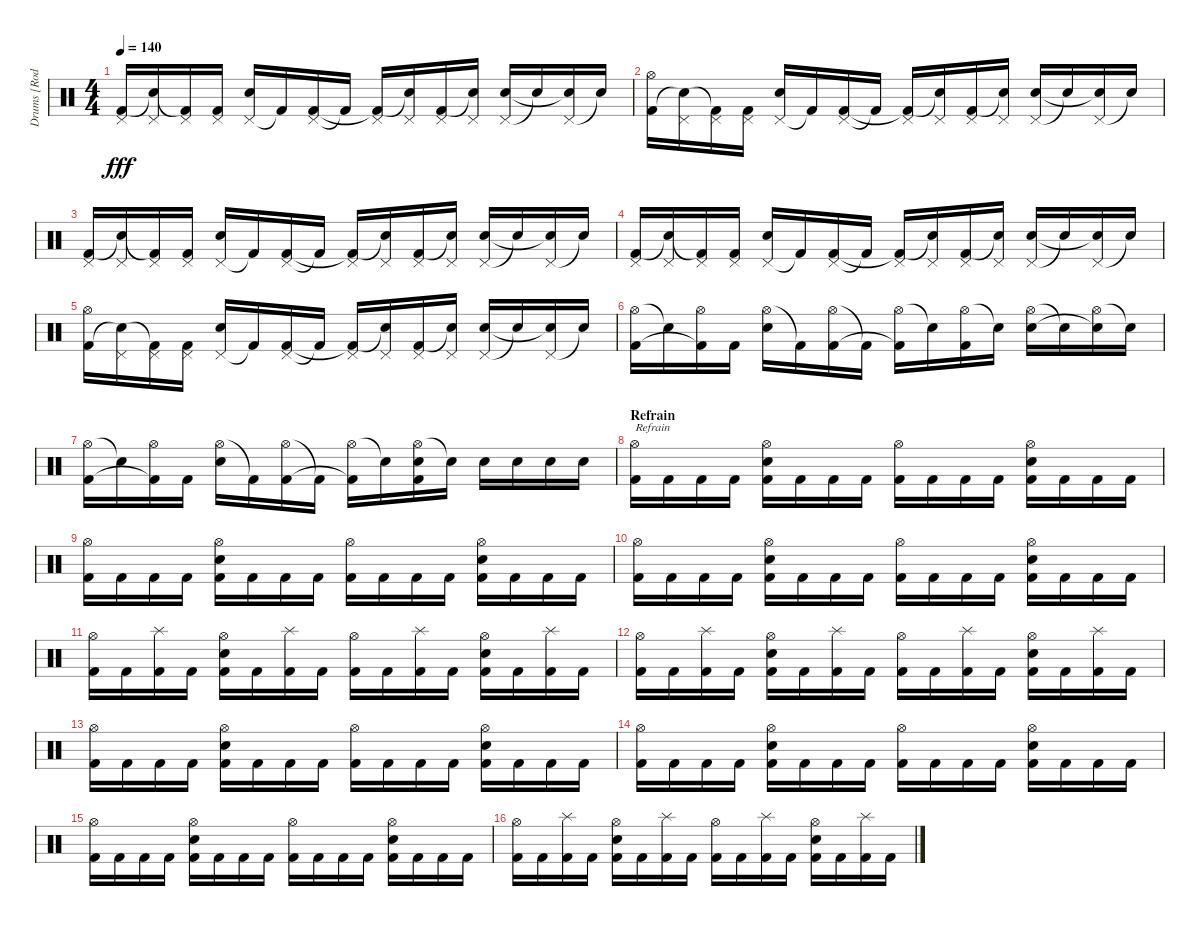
\track ("Drums [Rodney Holder]" "Drums [Rod") {instrument percussion}
\staff {score}
\articulation defaults
\ts (4 4)
\tempo 140
\clef neutral
\ks c
("Pedal Hi-Hat (hit)" "Kick (hit) 2").16{dy fff} ("Pedal Hi-Hat (hit)" "Snare (hit)"{t}).16 ("Pedal Hi-Hat (hit)" "Kick (hit) 2"{t}).16 ("Pedal Hi-Hat (hit)" "Kick (hit) 2").16 ("Pedal Hi-Hat (hit)" "Electric Snare (hit)").16 "Kick (hit) 2"{t}.16 ("Pedal Hi-Hat (hit)" "Kick (hit) 2").16 "Kick (hit) 2"{t}.16 ("Pedal Hi-Hat (hit)" "Kick (hit) 2"{t}).16 ("Pedal Hi-Hat (hit)" "Snare (hit)"{t}).16 ("Pedal Hi-Hat (hit)" "Kick (hit) 2").16 ("Pedal Hi-Hat (hit)" "Snare (hit)"{t}).16 ("Pedal Hi-Hat (hit)" "Electric Snare (hit)").16 "Snare (hit)"{t}.16 ("Pedal Hi-Hat (hit)" "Snare (hit)"{t}).16 "Snare (hit)"{t}.16 |
("Hi-Hat (open)" "Kick (hit) 2").16 ("Pedal Hi-Hat (hit)" "Snare (hit)"{t}).16 ("Pedal Hi-Hat (hit)" "Kick (hit) 2"{t}).16 ("Pedal Hi-Hat (hit)" "Kick (hit) 2").16 ("Pedal Hi-Hat (hit)" "Electric Snare (hit)").16 "Kick (hit) 2"{t}.16 ("Pedal Hi-Hat (hit)" "Kick (hit) 2").16 "Kick (hit) 2"{t}.16 ("Pedal Hi-Hat (hit)" "Kick (hit) 2"{t}).16 ("Pedal Hi-Hat (hit)" "Snare (hit)"{t}).16 ("Pedal Hi-Hat (hit)" "Kick (hit) 2").16 ("Pedal Hi-Hat (hit)" "Snare (hit)"{t}).16 ("Pedal Hi-Hat (hit)" "Electric Snare (hit)").16 "Snare (hit)"{t}.16 ("Pedal Hi-Hat (hit)" "Snare (hit)"{t}).16 "Snare (hit)"{t}.16 |
("Pedal Hi-Hat (hit)" "Kick (hit) 2").16 ("Pedal Hi-Hat (hit)" "Snare (hit)"{t}).16 ("Pedal Hi-Hat (hit)" "Kick (hit) 2"{t}).16 ("Pedal Hi-Hat (hit)" "Kick (hit) 2").16 ("Pedal Hi-Hat (hit)" "Electric Snare (hit)").16 "Kick (hit) 2"{t}.16 ("Pedal Hi-Hat (hit)" "Kick (hit) 2").16 "Kick (hit) 2"{t}.16 ("Pedal Hi-Hat (hit)" "Kick (hit) 2"{t}).16 ("Pedal Hi-Hat (hit)" "Snare (hit)"{t}).16 ("Pedal Hi-Hat (hit)" "Kick (hit) 2").16 ("Pedal Hi-Hat (hit)" "Snare (hit)"{t}).16 ("Pedal Hi-Hat (hit)" "Electric Snare (hit)").16 "Snare (hit)"{t}.16 ("Pedal Hi-Hat (hit)" "Snare (hit)"{t}).16 "Snare (hit)"{t}.16 |
("Pedal Hi-Hat (hit)" "Kick (hit) 2").16 ("Pedal Hi-Hat (hit)" "Snare (hit)"{t}).16 ("Pedal Hi-Hat (hit)" "Kick (hit) 2"{t}).16 ("Pedal Hi-Hat (hit)" "Kick (hit) 2").16 ("Pedal Hi-Hat (hit)" "Electric Snare (hit)").16 "Kick (hit) 2"{t}.16 ("Pedal Hi-Hat (hit)" "Kick (hit) 2").16 "Kick (hit) 2"{t}.16 ("Pedal Hi-Hat (hit)" "Kick (hit) 2"{t}).16 ("Pedal Hi-Hat (hit)" "Snare (hit)"{t}).16 ("Pedal Hi-Hat (hit)" "Kick (hit) 2").16 ("Pedal Hi-Hat (hit)" "Snare (hit)"{t}).16 ("Pedal Hi-Hat (hit)" "Electric Snare (hit)").16 "Snare (hit)"{t}.16 ("Pedal Hi-Hat (hit)" "Snare (hit)"{t}).16 "Snare (hit)"{t}.16 |
("Hi-Hat (open)" "Kick (hit) 2").16 ("Pedal Hi-Hat (hit)" "Snare (hit)"{t}).16 ("Pedal Hi-Hat (hit)" "Kick (hit) 2"{t}).16 ("Pedal Hi-Hat (hit)" "Kick (hit) 2").16 ("Pedal Hi-Hat (hit)" "Electric Snare (hit)").16 "Kick (hit) 2"{t}.16 ("Pedal Hi-Hat (hit)" "Kick (hit) 2").16 "Kick (hit) 2"{t}.16 ("Pedal Hi-Hat (hit)" "Kick (hit) 2"{t}).16 ("Pedal Hi-Hat (hit)" "Snare (hit)"{t}).16 ("Pedal Hi-Hat (hit)" "Kick (hit) 2").16 ("Pedal Hi-Hat (hit)" "Snare (hit)"{t}).16 ("Pedal Hi-Hat (hit)" "Electric Snare (hit)").16 "Snare (hit)"{t}.16 ("Pedal Hi-Hat (hit)" "Snare (hit)"{t}).16 "Snare (hit)"{t}.16 |
("Hi-Hat (open)" "Kick (hit) 2").16 "Snare (hit)"{t}.16 ("Hi-Hat (open)" "Kick (hit) 2"{t}).16 "Kick (hit) 2".16 ("Hi-Hat (open)" "Electric Snare (hit)").16 "Kick (hit) 2"{t}.16 ("Hi-Hat (open)" "Kick (hit) 2").16 "Kick (hit) 2"{t}.16 ("Hi-Hat (open)" "Kick (hit) 2"{t}).16 "Snare (hit)"{t}.16 ("Hi-Hat (open)" "Kick (hit) 2").16 "Snare (hit)"{t}.16 ("Hi-Hat (open)" "Electric Snare (hit)").16 "Snare (hit)"{t}.16 ("Hi-Hat (open)" "Snare (hit)"{t}).16 "Snare (hit)"{t}.16 |
("Hi-Hat (open)" "Kick (hit) 2").16 "Snare (hit)"{t}.16 ("Hi-Hat (open)" "Kick (hit) 2"{t}).16 "Kick (hit) 2".16 ("Hi-Hat (open)" "Electric Snare (hit)").16 "Kick (hit) 2"{t}.16 ("Hi-Hat (open)" "Kick (hit) 2").16 "Kick (hit) 2"{t}.16 ("Hi-Hat (open)" "Kick (hit) 2"{t}).16 "Snare (hit)"{t}.16 ("Hi-Hat (open)" "Electric Snare (hit)" "Kick (hit) 2").16 "Snare (hit)"{t}.16 "Electric Snare (hit)".16 "Electric Snare (hit)".16 "Electric Snare (hit)".16 "Electric Snare (hit)".16 |
\section ("" "Refrain")
("Hi-Hat (open)" "Kick (hit) 2").16{txt "Refrain"} "Kick (hit) 2".16 "Kick (hit) 2".16 "Kick (hit) 2".16 ("Hi-Hat (open)" "Electric Snare (hit)" "Kick (hit) 2").16 "Kick (hit) 2".16 "Kick (hit) 2".16 "Kick (hit) 2".16 ("Hi-Hat (open)" "Kick (hit) 2").16 "Kick (hit) 2".16 "Kick (hit) 2".16 "Kick (hit) 2".16 ("Hi-Hat (open)" "Electric Snare (hit)" "Kick (hit) 2").16 "Kick (hit) 2".16 "Kick (hit) 2".16 "Kick (hit) 2".16 |
("Hi-Hat (open)" "Kick (hit) 2").16 "Kick (hit) 2".16 "Kick (hit) 2".16 "Kick (hit) 2".16 ("Hi-Hat (open)" "Electric Snare (hit)" "Kick (hit) 2").16 "Kick (hit) 2".16 "Kick (hit) 2".16 "Kick (hit) 2".16 ("Hi-Hat (open)" "Kick (hit) 2").16 "Kick (hit) 2".16 "Kick (hit) 2".16 "Kick (hit) 2".16 ("Hi-Hat (open)" "Electric Snare (hit)" "Kick (hit) 2").16 "Kick (hit) 2".16 "Kick (hit) 2".16 "Kick (hit) 2".16 |
("Hi-Hat (open)" "Kick (hit) 2").16 "Kick (hit) 2".16 "Kick (hit) 2".16 "Kick (hit) 2".16 ("Hi-Hat (open)" "Electric Snare (hit)" "Kick (hit) 2").16 "Kick (hit) 2".16 "Kick (hit) 2".16 "Kick (hit) 2".16 ("Hi-Hat (open)" "Kick (hit) 2").16 "Kick (hit) 2".16 "Kick (hit) 2".16 "Kick (hit) 2".16 ("Hi-Hat (open)" "Electric Snare (hit)" "Kick (hit) 2").16 "Kick (hit) 2".16 "Kick (hit) 2".16 "Kick (hit) 2".16 |
("Hi-Hat (open)" "Kick (hit) 2").16 "Kick (hit) 2".16 ("Splash (hit)" "Kick (hit) 2").16 "Kick (hit) 2".16 ("Hi-Hat (open)" "Electric Snare (hit)" "Kick (hit) 2").16 "Kick (hit) 2".16 ("Splash (hit)" "Kick (hit) 2").16 "Kick (hit) 2".16 ("Hi-Hat (open)" "Kick (hit) 2").16 "Kick (hit) 2".16 ("Splash (hit)" "Kick (hit) 2").16 "Kick (hit) 2".16 ("Hi-Hat (open)" "Electric Snare (hit)" "Kick (hit) 2").16 "Kick (hit) 2".16 ("Splash (hit)" "Kick (hit) 2").16 "Kick (hit) 2".16 |
("Hi-Hat (open)" "Kick (hit) 2").16 "Kick (hit) 2".16 ("Splash (hit)" "Kick (hit) 2").16 "Kick (hit) 2".16 ("Hi-Hat (open)" "Electric Snare (hit)" "Kick (hit) 2").16 "Kick (hit) 2".16 ("Splash (hit)" "Kick (hit) 2").16 "Kick (hit) 2".16 ("Hi-Hat (open)" "Kick (hit) 2").16 "Kick (hit) 2".16 ("Splash (hit)" "Kick (hit) 2").16 "Kick (hit) 2".16 ("Hi-Hat (open)" "Electric Snare (hit)" "Kick (hit) 2").16 "Kick (hit) 2".16 ("Splash (hit)" "Kick (hit) 2").16 "Kick (hit) 2".16 |
("Hi-Hat (open)" "Kick (hit) 2").16 "Kick (hit) 2".16 "Kick (hit) 2".16 "Kick (hit) 2".16 ("Hi-Hat (open)" "Electric Snare (hit)" "Kick (hit) 2").16 "Kick (hit) 2".16 "Kick (hit) 2".16 "Kick (hit) 2".16 ("Hi-Hat (open)" "Kick (hit) 2").16 "Kick (hit) 2".16 "Kick (hit) 2".16 "Kick (hit) 2".16 ("Hi-Hat (open)" "Electric Snare (hit)" "Kick (hit) 2").16 "Kick (hit) 2".16 "Kick (hit) 2".16 "Kick (hit) 2".16 |
("Hi-Hat (open)" "Kick (hit) 2").16 "Kick (hit) 2".16 "Kick (hit) 2".16 "Kick (hit) 2".16 ("Hi-Hat (open)" "Electric Snare (hit)" "Kick (hit) 2").16 "Kick (hit) 2".16 "Kick (hit) 2".16 "Kick (hit) 2".16 ("Hi-Hat (open)" "Kick (hit) 2").16 "Kick (hit) 2".16 "Kick (hit) 2".16 "Kick (hit) 2".16 ("Hi-Hat (open)" "Electric Snare (hit)" "Kick (hit) 2").16 "Kick (hit) 2".16 "Kick (hit) 2".16 "Kick (hit) 2".16 |
("Hi-Hat (open)" "Kick (hit) 2").16 "Kick (hit) 2".16 "Kick (hit) 2".16 "Kick (hit) 2".16 ("Hi-Hat (open)" "Electric Snare (hit)" "Kick (hit) 2").16 "Kick (hit) 2".16 "Kick (hit) 2".16 "Kick (hit) 2".16 ("Hi-Hat (open)" "Kick (hit) 2").16 "Kick (hit) 2".16 "Kick (hit) 2".16 "Kick (hit) 2".16 ("Hi-Hat (open)" "Electric Snare (hit)" "Kick (hit) 2").16 "Kick (hit) 2".16 "Kick (hit) 2".16 "Kick (hit) 2".16 |
("Hi-Hat (open)" "Kick (hit) 2").16 "Kick (hit) 2".16 ("Splash (hit)" "Kick (hit) 2").16 "Kick (hit) 2".16 ("Hi-Hat (open)" "Electric Snare (hit)" "Kick (hit) 2").16 "Kick (hit) 2".16 ("Splash (hit)" "Kick (hit) 2").16 "Kick (hit) 2".16 ("Hi-Hat (open)" "Kick (hit) 2").16 "Kick (hit) 2".16 ("Splash (hit)" "Kick (hit) 2").16 "Kick (hit) 2".16 ("Hi-Hat (open)" "Electric Snare (hit)" "Kick (hit) 2").16 "Kick (hit) 2".16 ("Splash (hit)" "Kick (hit) 2").16 "Kick (hit) 2".16
